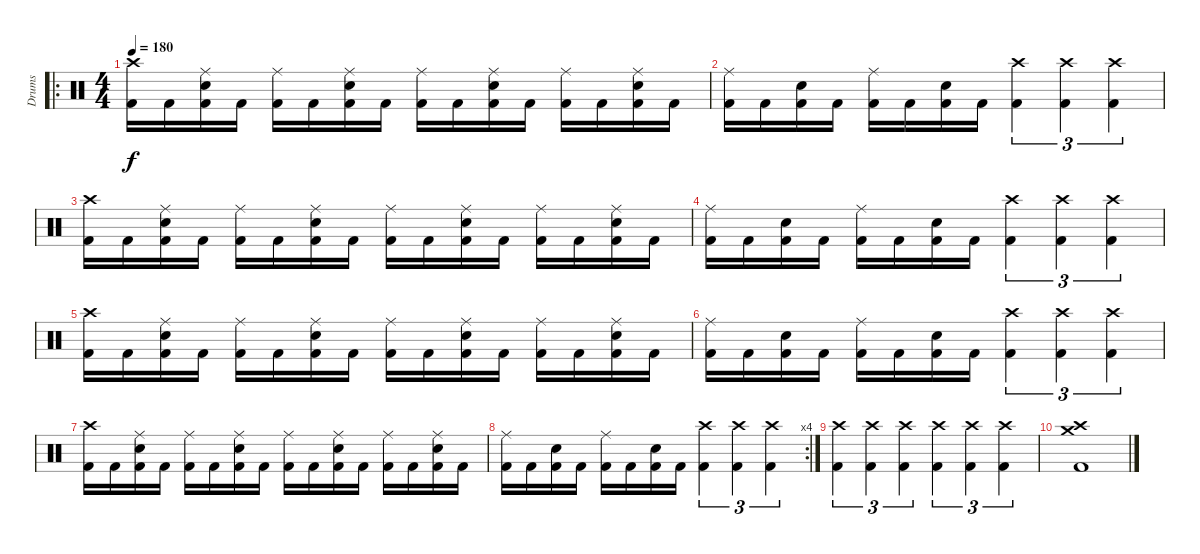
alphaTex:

\track ("Drums" "Drums") {instrument percussion}
\staff {score}
\articulation defaults
\ro
\ts (4 4)
\tempo 180
\clef neutral
\ks c
("Crash high (hit)" "Kick (hit) 2").16{dy f} "Kick (hit) 2".16 ("Ride (middle)" "Electric Snare (hit)" "Kick (hit) 2").16 "Kick (hit) 2".16 ("Ride (middle)" "Kick (hit) 2").16 "Kick (hit) 2".16 ("Ride (middle)" "Electric Snare (hit)" "Kick (hit) 2").16 "Kick (hit) 2".16 ("Ride (middle)" "Kick (hit) 2").16 "Kick (hit) 2".16 ("Ride (middle)" "Electric Snare (hit)" "Kick (hit) 2").16 "Kick (hit) 2".16 ("Ride (middle)" "Kick (hit) 2").16 "Kick (hit) 2".16 ("Ride (middle)" "Electric Snare (hit)" "Kick (hit) 2").16 "Kick (hit) 2".16 |
("Ride (middle)" "Kick (hit) 2").16 "Kick (hit) 2".16 ("Electric Snare (hit)" "Kick (hit) 2").16 "Kick (hit) 2".16 ("Ride (middle)" "Kick (hit) 2").16 "Kick (hit) 2".16 ("Electric Snare (hit)" "Kick (hit) 2").16 "Kick (hit) 2".16 ("Crash high (hit)" "Kick (hit) 2").4{tu (3 2)} ("Crash high (hit)" "Kick (hit) 2").4{tu (3 2)} ("Crash high (hit)" "Kick (hit) 2").4{tu (3 2)} |
("Crash high (hit)" "Kick (hit) 2").16 "Kick (hit) 2".16 ("Ride (middle)" "Electric Snare (hit)" "Kick (hit) 2").16 "Kick (hit) 2".16 ("Ride (middle)" "Kick (hit) 2").16 "Kick (hit) 2".16 ("Ride (middle)" "Electric Snare (hit)" "Kick (hit) 2").16 "Kick (hit) 2".16 ("Ride (middle)" "Kick (hit) 2").16 "Kick (hit) 2".16 ("Ride (middle)" "Electric Snare (hit)" "Kick (hit) 2").16 "Kick (hit) 2".16 ("Ride (middle)" "Kick (hit) 2").16 "Kick (hit) 2".16 ("Ride (middle)" "Electric Snare (hit)" "Kick (hit) 2").16 "Kick (hit) 2".16 |
("Ride (middle)" "Kick (hit) 2").16 "Kick (hit) 2".16 ("Electric Snare (hit)" "Kick (hit) 2").16 "Kick (hit) 2".16 ("Ride (middle)" "Kick (hit) 2").16 "Kick (hit) 2".16 ("Electric Snare (hit)" "Kick (hit) 2").16 "Kick (hit) 2".16 ("Crash high (hit)" "Kick (hit) 2").4{tu (3 2)} ("Crash high (hit)" "Kick (hit) 2").4{tu (3 2)} ("Crash high (hit)" "Kick (hit) 2").4{tu (3 2)} |
("Crash high (hit)" "Kick (hit) 2").16 "Kick (hit) 2".16 ("Ride (middle)" "Electric Snare (hit)" "Kick (hit) 2").16 "Kick (hit) 2".16 ("Ride (middle)" "Kick (hit) 2").16 "Kick (hit) 2".16 ("Ride (middle)" "Electric Snare (hit)" "Kick (hit) 2").16 "Kick (hit) 2".16 ("Ride (middle)" "Kick (hit) 2").16 "Kick (hit) 2".16 ("Ride (middle)" "Electric Snare (hit)" "Kick (hit) 2").16 "Kick (hit) 2".16 ("Ride (middle)" "Kick (hit) 2").16 "Kick (hit) 2".16 ("Ride (middle)" "Electric Snare (hit)" "Kick (hit) 2").16 "Kick (hit) 2".16 |
("Ride (middle)" "Kick (hit) 2").16 "Kick (hit) 2".16 ("Electric Snare (hit)" "Kick (hit) 2").16 "Kick (hit) 2".16 ("Ride (middle)" "Kick (hit) 2").16 "Kick (hit) 2".16 ("Electric Snare (hit)" "Kick (hit) 2").16 "Kick (hit) 2".16 ("Crash high (hit)" "Kick (hit) 2").4{tu (3 2)} ("Crash high (hit)" "Kick (hit) 2").4{tu (3 2)} ("Crash high (hit)" "Kick (hit) 2").4{tu (3 2)} |
("Crash high (hit)" "Kick (hit) 2").16 "Kick (hit) 2".16 ("Ride (middle)" "Electric Snare (hit)" "Kick (hit) 2").16 "Kick (hit) 2".16 ("Ride (middle)" "Kick (hit) 2").16 "Kick (hit) 2".16 ("Ride (middle)" "Electric Snare (hit)" "Kick (hit) 2").16 "Kick (hit) 2".16 ("Ride (middle)" "Kick (hit) 2").16 "Kick (hit) 2".16 ("Ride (middle)" "Electric Snare (hit)" "Kick (hit) 2").16 "Kick (hit) 2".16 ("Ride (middle)" "Kick (hit) 2").16 "Kick (hit) 2".16 ("Ride (middle)" "Electric Snare (hit)" "Kick (hit) 2").16 "Kick (hit) 2".16 |
\rc 4
("Ride (middle)" "Kick (hit) 2").16 "Kick (hit) 2".16 ("Electric Snare (hit)" "Kick (hit) 2").16 "Kick (hit) 2".16 ("Ride (middle)" "Kick (hit) 2").16 "Kick (hit) 2".16 ("Electric Snare (hit)" "Kick (hit) 2").16 "Kick (hit) 2".16 ("Crash high (hit)" "Kick (hit) 2").4{tu (3 2)} ("Crash high (hit)" "Kick (hit) 2").4{tu (3 2)} ("Crash high (hit)" "Kick (hit) 2").4{tu (3 2)} |
("Crash high (hit)" "Kick (hit) 2").4{tu (3 2)} ("Crash high (hit)" "Kick (hit) 2").4{tu (3 2)} ("Crash high (hit)" "Kick (hit) 2").4{tu (3 2)} ("Crash high (hit)" "Kick (hit) 2").4{tu (3 2)} ("Crash high (hit)" "Kick (hit) 2").4{tu (3 2)} ("Crash high (hit)" "Kick (hit) 2").4{tu (3 2)} |
("Crash high (hit)" "Crash medium (hit)" "Kick (hit) 2").1
